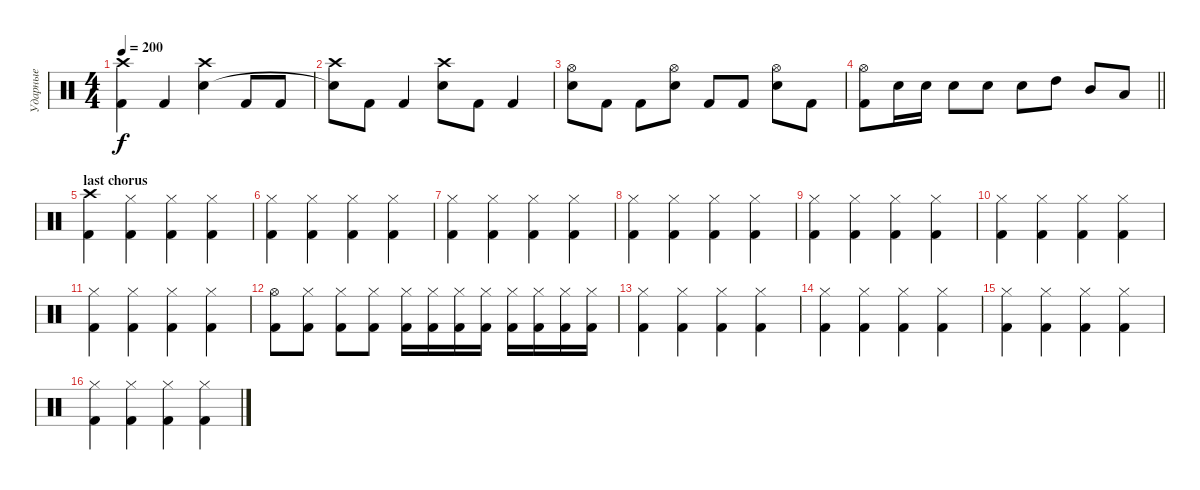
\track ("Ударные" "Ударные") {instrument percussion}
\staff {score}
\articulation defaults
\ts (4 4)
\tempo 200
\clef neutral
\ks c
("Crash high (hit)" "Kick (hit) 2").4{dy f} "Kick (hit) 2".4 ("Crash high (hit)" "Electric Snare (hit)").4 "Kick (hit) 2".8 "Kick (hit) 2".8 |
("Crash high (hit)" "Snare (hit)"{t}).8 "Kick (hit) 2".8 "Kick (hit) 2".4 ("Crash high (hit)" "Electric Snare (hit)").8 "Kick (hit) 2".8 "Kick (hit) 2".4 |
("Hi-Hat (open)" "Electric Snare (hit)").8 "Kick (hit) 2".8 "Kick (hit) 2".8 ("Hi-Hat (open)" "Electric Snare (hit)").8 "Kick (hit) 2".8 "Kick (hit) 2".8 ("Hi-Hat (open)" "Electric Snare (hit)").8 "Kick (hit) 2".8 |
\barLineRight lightlight
("Hi-Hat (open)" "Kick (hit) 2").8 "Electric Snare (hit)".16 "Electric Snare (hit)".16 "Electric Snare (hit)".8 "Electric Snare (hit)".8 "Electric Snare (hit)".8 "High Tom (hit)".8 "Mid Tom (hit)".8 "Low Tom (hit)".8 |
\section ("" "last chorus")
("Crash high (hit)" "Kick (hit) 2").4 ("Hi-Hat (closed)" "Kick (hit) 2").4 ("Hi-Hat (closed)" "Kick (hit) 2").4 ("Hi-Hat (closed)" "Kick (hit) 2").4 |
("Hi-Hat (closed)" "Kick (hit) 2").4 ("Hi-Hat (closed)" "Kick (hit) 2").4 ("Hi-Hat (closed)" "Kick (hit) 2").4 ("Hi-Hat (closed)" "Kick (hit) 2").4 |
("Hi-Hat (closed)" "Kick (hit) 2").4 ("Hi-Hat (closed)" "Kick (hit) 2").4 ("Hi-Hat (closed)" "Kick (hit) 2").4 ("Hi-Hat (closed)" "Kick (hit) 2").4 |
("Hi-Hat (closed)" "Kick (hit) 2").4 ("Hi-Hat (closed)" "Kick (hit) 2").4 ("Hi-Hat (closed)" "Kick (hit) 2").4 ("Hi-Hat (closed)" "Kick (hit) 2").4 |
("Hi-Hat (closed)" "Kick (hit) 2").4 ("Hi-Hat (closed)" "Kick (hit) 2").4 ("Hi-Hat (closed)" "Kick (hit) 2").4 ("Hi-Hat (closed)" "Kick (hit) 2").4 |
("Hi-Hat (closed)" "Kick (hit) 2").4 ("Hi-Hat (closed)" "Kick (hit) 2").4 ("Hi-Hat (closed)" "Kick (hit) 2").4 ("Hi-Hat (closed)" "Kick (hit) 2").4 |
("Hi-Hat (closed)" "Kick (hit) 2").4 ("Hi-Hat (closed)" "Kick (hit) 2").4 ("Hi-Hat (closed)" "Kick (hit) 2").4 ("Hi-Hat (closed)" "Kick (hit) 2").4 |
("Hi-Hat (open)" "Kick (hit) 2").8 ("Hi-Hat (closed)" "Kick (hit) 2").8 ("Hi-Hat (closed)" "Kick (hit) 2").8 ("Hi-Hat (closed)" "Kick (hit) 2").8 ("Hi-Hat (closed)" "Kick (hit) 2").16 ("Hi-Hat (closed)" "Kick (hit) 2").16 ("Hi-Hat (closed)" "Kick (hit) 2").16 ("Hi-Hat (closed)" "Kick (hit) 2").16 ("Hi-Hat (closed)" "Kick (hit) 2").16 ("Hi-Hat (closed)" "Kick (hit) 2").16 ("Hi-Hat (closed)" "Kick (hit) 2").16 ("Hi-Hat (closed)" "Kick (hit) 2").16 |
("Hi-Hat (closed)" "Kick (hit) 2").4 ("Hi-Hat (closed)" "Kick (hit) 2").4 ("Hi-Hat (closed)" "Kick (hit) 2").4 ("Hi-Hat (closed)" "Kick (hit) 2").4 |
("Hi-Hat (closed)" "Kick (hit) 2").4 ("Hi-Hat (closed)" "Kick (hit) 2").4 ("Hi-Hat (closed)" "Kick (hit) 2").4 ("Hi-Hat (closed)" "Kick (hit) 2").4 |
("Hi-Hat (closed)" "Kick (hit) 2").4 ("Hi-Hat (closed)" "Kick (hit) 2").4 ("Hi-Hat (closed)" "Kick (hit) 2").4 ("Hi-Hat (closed)" "Kick (hit) 2").4 |
("Hi-Hat (closed)" "Kick (hit) 2").4 ("Hi-Hat (closed)" "Kick (hit) 2").4 ("Hi-Hat (closed)" "Kick (hit) 2").4 ("Hi-Hat (closed)" "Kick (hit) 2").4
